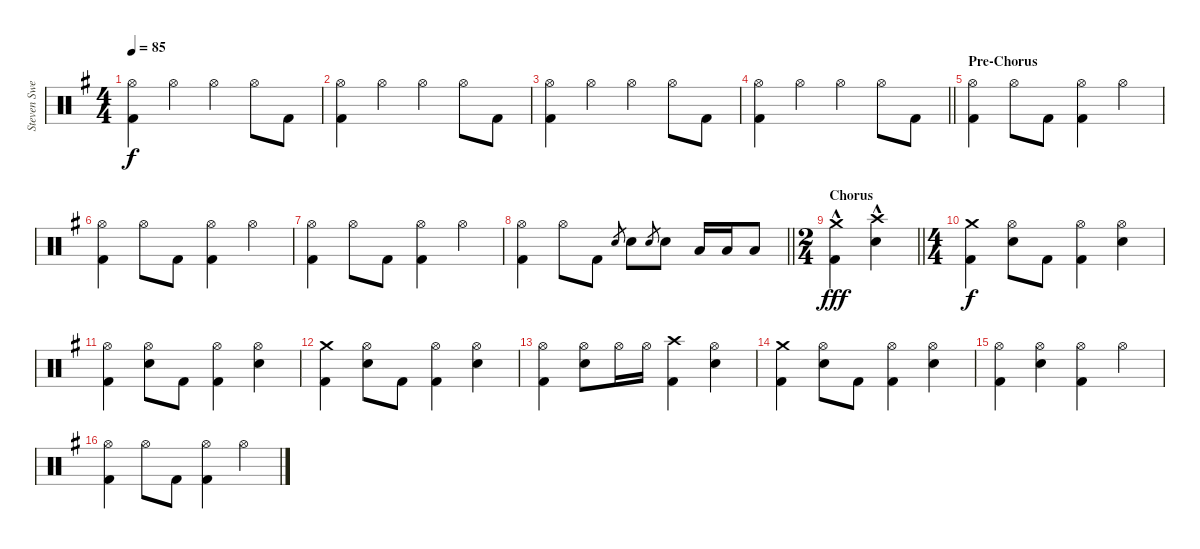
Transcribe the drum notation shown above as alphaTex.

\track ("Steven Sweet" "Steven Swe") {instrument percussion}
\staff {score}
\articulation defaults
\ts (4 4)
\tempo 85
\clef neutral
\ks g
("Hi-Hat (open)" "Kick (hit) 2").4{dy f} "Hi-Hat (open)".4 "Hi-Hat (open)".4 "Hi-Hat (open)".8 "Kick (hit) 2".8 |
("Hi-Hat (open)" "Kick (hit) 2").4 "Hi-Hat (open)".4 "Hi-Hat (open)".4 "Hi-Hat (open)".8 "Kick (hit) 2".8 |
("Hi-Hat (open)" "Kick (hit) 2").4 "Hi-Hat (open)".4 "Hi-Hat (open)".4 "Hi-Hat (open)".8 "Kick (hit) 2".8 |
\barLineRight lightlight
("Hi-Hat (open)" "Kick (hit) 2").4 "Hi-Hat (open)".4 "Hi-Hat (open)".4 "Hi-Hat (open)".8 "Kick (hit) 2".8 |
\section ("" "Pre-Chorus")
("Hi-Hat (open)" "Kick (hit) 2").4 "Hi-Hat (open)".8 "Kick (hit) 2".8 ("Hi-Hat (open)" "Kick (hit) 2").4 "Hi-Hat (open)".4 |
("Hi-Hat (open)" "Kick (hit) 2").4 "Hi-Hat (open)".8 "Kick (hit) 2".8 ("Hi-Hat (open)" "Kick (hit) 2").4 "Hi-Hat (open)".4 |
("Hi-Hat (open)" "Kick (hit) 2").4 "Hi-Hat (open)".8 "Kick (hit) 2".8 ("Hi-Hat (open)" "Kick (hit) 2").4 "Hi-Hat (open)".4 |
\barLineRight lightlight
("Hi-Hat (open)" "Kick (hit) 2").4 "Hi-Hat (open)".8 "Kick (hit) 2".8 "Snare (hit) 2".8{gr} "Snare (hit) 2".8 "Snare (hit) 2".8{gr} "Snare (hit) 2".8 "Low Tom (hit)".16 "Low Tom (hit)".16 "Low Tom (hit)".8 |
\ts (2 4)
\section ("" "Chorus")
\barLineRight lightlight
("Crash medium (hit)"{hac} "Kick (hit) 2"{hac}).4{dy fff} ("Crash high (hit)"{hac} "Snare (hit) 2"{hac}).4 |
\ts (4 4)
("Crash medium (hit)" "Kick (hit) 2").4{dy f} ("Hi-Hat (open)" "Snare (hit) 2").8 "Kick (hit) 2".8 ("Hi-Hat (open)" "Kick (hit) 2").4 ("Hi-Hat (open)" "Snare (hit) 2").4 |
("Hi-Hat (open)" "Kick (hit) 2").4 ("Hi-Hat (open)" "Snare (hit) 2").8 "Kick (hit) 2".8 ("Hi-Hat (open)" "Kick (hit) 2").4 ("Hi-Hat (open)" "Snare (hit) 2").4 |
("Crash medium (hit)" "Kick (hit) 2").4 ("Hi-Hat (open)" "Snare (hit) 2").8 "Kick (hit) 2".8 ("Hi-Hat (open)" "Kick (hit) 2").4 ("Hi-Hat (open)" "Snare (hit) 2").4 |
("Hi-Hat (open)" "Kick (hit) 2").4 ("Hi-Hat (open)" "Snare (hit) 2").8 "Hi-Hat (open)".16 "Hi-Hat (open)".16 ("Crash high (hit)" "Kick (hit) 2").4 ("Hi-Hat (open)" "Snare (hit) 2").4 |
("Crash medium (hit)" "Kick (hit) 2").4 ("Hi-Hat (open)" "Snare (hit) 2").8 "Kick (hit) 2".8 ("Hi-Hat (open)" "Kick (hit) 2").4 ("Hi-Hat (open)" "Snare (hit) 2").4 |
("Hi-Hat (open)" "Kick (hit) 2").4 ("Hi-Hat (open)" "Snare (hit) 2").4 ("Hi-Hat (open)" "Kick (hit) 2").4 "Hi-Hat (open)".4 |
("Hi-Hat (open)" "Kick (hit) 2").4 "Hi-Hat (open)".8 "Kick (hit) 2".8 ("Hi-Hat (open)" "Kick (hit) 2").4 "Hi-Hat (open)".4
